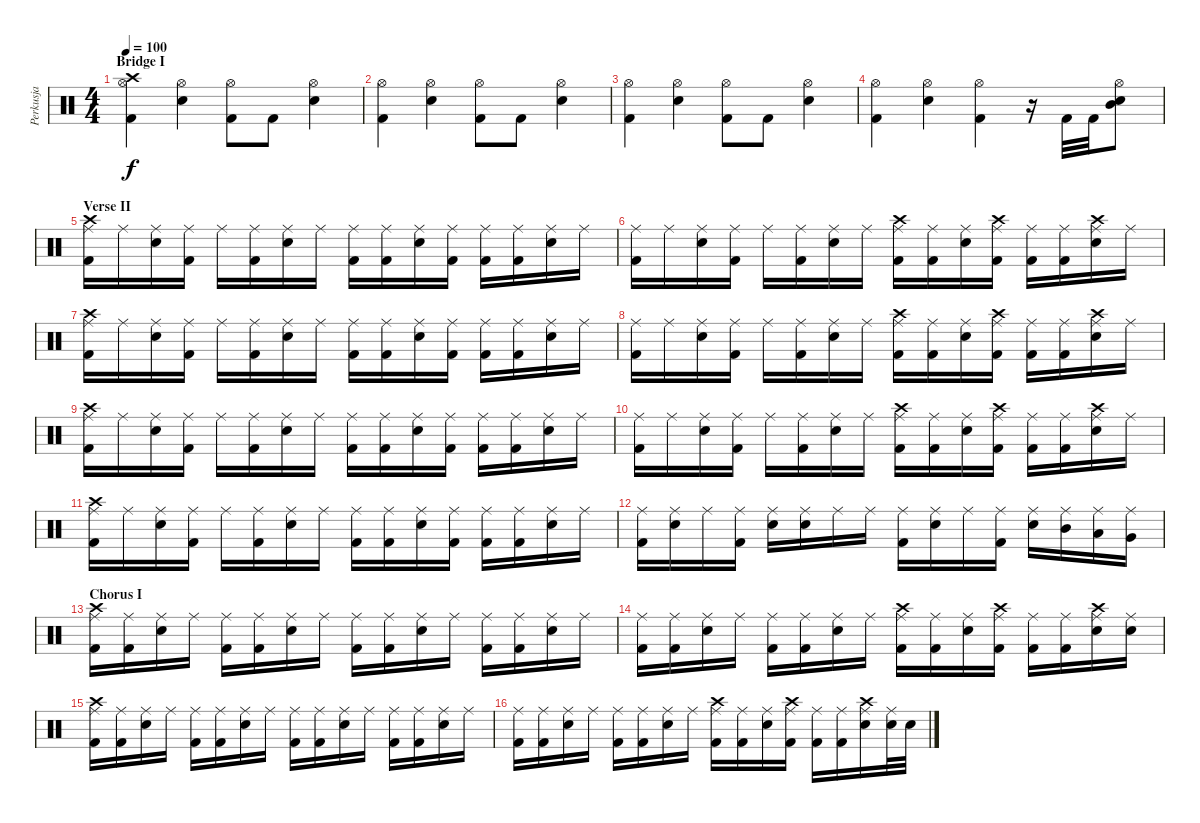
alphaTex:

\track ("Perkusja" "Perkusja") {instrument percussion}
\staff {score}
\articulation defaults
\ts (4 4)
\section ("" "Bridge I")
\tempo 100
\clef neutral
\ks c
("Kick (hit) 2" "Hi-Hat (open)" "Crash high (hit)").4{dy f} ("Snare (hit) 2" "Hi-Hat (open)").4 ("Kick (hit) 2" "Hi-Hat (open)").8 "Kick (hit) 2".8 ("Snare (hit) 2" "Hi-Hat (open)").4 |
("Kick (hit) 2" "Hi-Hat (open)").4 ("Snare (hit) 2" "Hi-Hat (open)").4 ("Kick (hit) 2" "Hi-Hat (open)").8 "Kick (hit) 2".8 ("Snare (hit) 2" "Hi-Hat (open)").4 |
("Kick (hit) 2" "Hi-Hat (open)").4 ("Snare (hit) 2" "Hi-Hat (open)").4 ("Kick (hit) 2" "Hi-Hat (open)").8 "Kick (hit) 2".8 ("Snare (hit) 2" "Hi-Hat (open)").4 |
("Kick (hit) 2" "Hi-Hat (open)").4 ("Snare (hit) 2" "Hi-Hat (open)").4 ("Kick (hit) 2" "Hi-Hat (open)").4 r.16 "Kick (hit) 2".32 "Kick (hit) 2".32 ("Snare (hit) 2" "Hi-Hat (open)" "Mid Tom (hit)").8 |
\section ("" "Verse II")
("Kick (hit) 2" "Ride (middle)" "Crash high (hit)").16 "Ride (middle)".16 ("Snare (hit) 2" "Ride (middle)").16 ("Kick (hit) 2" "Ride (middle)").16 "Ride (middle)".16 ("Kick (hit) 2" "Ride (middle)").16 ("Snare (hit) 2" "Ride (middle)").16 "Ride (middle)".16 ("Kick (hit) 2" "Ride (middle)").16 ("Kick (hit) 2" "Ride (middle)").16 ("Snare (hit) 2" "Ride (middle)").16 ("Kick (hit) 2" "Ride (middle)").16 ("Kick (hit) 2" "Ride (middle)").16 ("Kick (hit) 2" "Ride (middle)").16 ("Snare (hit) 2" "Ride (middle)").16 "Ride (middle)".16 |
("Kick (hit) 2" "Ride (middle)").16 "Ride (middle)".16 ("Snare (hit) 2" "Ride (middle)").16 ("Kick (hit) 2" "Ride (middle)").16 "Ride (middle)".16 ("Kick (hit) 2" "Ride (middle)").16 ("Snare (hit) 2" "Ride (middle)").16 "Ride (middle)".16 ("Kick (hit) 2" "Ride (middle)" "Crash high (hit)").16 ("Kick (hit) 2" "Ride (middle)").16 ("Snare (hit) 2" "Ride (middle)").16 ("Kick (hit) 2" "Ride (middle)" "Crash high (hit)").16 ("Kick (hit) 2" "Ride (middle)").16 ("Kick (hit) 2" "Ride (middle)").16 ("Snare (hit) 2" "Ride (middle)" "Crash high (hit)").16 "Ride (middle)".16 |
("Kick (hit) 2" "Ride (middle)" "Crash high (hit)").16 "Ride (middle)".16 ("Snare (hit) 2" "Ride (middle)").16 ("Kick (hit) 2" "Ride (middle)").16 "Ride (middle)".16 ("Kick (hit) 2" "Ride (middle)").16 ("Snare (hit) 2" "Ride (middle)").16 "Ride (middle)".16 ("Kick (hit) 2" "Ride (middle)").16 ("Kick (hit) 2" "Ride (middle)").16 ("Snare (hit) 2" "Ride (middle)").16 ("Kick (hit) 2" "Ride (middle)").16 ("Kick (hit) 2" "Ride (middle)").16 ("Kick (hit) 2" "Ride (middle)").16 ("Snare (hit) 2" "Ride (middle)").16 "Ride (middle)".16 |
("Kick (hit) 2" "Ride (middle)").16 "Ride (middle)".16 ("Snare (hit) 2" "Ride (middle)").16 ("Kick (hit) 2" "Ride (middle)").16 "Ride (middle)".16 ("Kick (hit) 2" "Ride (middle)").16 ("Snare (hit) 2" "Ride (middle)").16 "Ride (middle)".16 ("Kick (hit) 2" "Ride (middle)" "Crash high (hit)").16 ("Kick (hit) 2" "Ride (middle)").16 ("Snare (hit) 2" "Ride (middle)").16 ("Kick (hit) 2" "Ride (middle)" "Crash high (hit)").16 ("Kick (hit) 2" "Ride (middle)").16 ("Kick (hit) 2" "Ride (middle)").16 ("Snare (hit) 2" "Ride (middle)" "Crash high (hit)").16 "Ride (middle)".16 |
("Kick (hit) 2" "Ride (middle)" "Crash high (hit)").16 "Ride (middle)".16 ("Snare (hit) 2" "Ride (middle)").16 ("Kick (hit) 2" "Ride (middle)").16 "Ride (middle)".16 ("Kick (hit) 2" "Ride (middle)").16 ("Snare (hit) 2" "Ride (middle)").16 "Ride (middle)".16 ("Kick (hit) 2" "Ride (middle)").16 ("Kick (hit) 2" "Ride (middle)").16 ("Snare (hit) 2" "Ride (middle)").16 ("Kick (hit) 2" "Ride (middle)").16 ("Kick (hit) 2" "Ride (middle)").16 ("Kick (hit) 2" "Ride (middle)").16 ("Snare (hit) 2" "Ride (middle)").16 "Ride (middle)".16 |
("Kick (hit) 2" "Ride (middle)").16 "Ride (middle)".16 ("Snare (hit) 2" "Ride (middle)").16 ("Kick (hit) 2" "Ride (middle)").16 "Ride (middle)".16 ("Kick (hit) 2" "Ride (middle)").16 ("Snare (hit) 2" "Ride (middle)").16 "Ride (middle)".16 ("Kick (hit) 2" "Ride (middle)" "Crash high (hit)").16 ("Kick (hit) 2" "Ride (middle)").16 ("Snare (hit) 2" "Ride (middle)").16 ("Kick (hit) 2" "Ride (middle)" "Crash high (hit)").16 ("Kick (hit) 2" "Ride (middle)").16 ("Kick (hit) 2" "Ride (middle)").16 ("Snare (hit) 2" "Ride (middle)" "Crash high (hit)").16 "Ride (middle)".16 |
("Kick (hit) 2" "Ride (middle)" "Crash high (hit)").16 "Ride (middle)".16 ("Snare (hit) 2" "Ride (middle)").16 ("Kick (hit) 2" "Ride (middle)").16 "Ride (middle)".16 ("Kick (hit) 2" "Ride (middle)").16 ("Snare (hit) 2" "Ride (middle)").16 "Ride (middle)".16 ("Kick (hit) 2" "Ride (middle)").16 ("Kick (hit) 2" "Ride (middle)").16 ("Snare (hit) 2" "Ride (middle)").16 ("Kick (hit) 2" "Ride (middle)").16 ("Kick (hit) 2" "Ride (middle)").16 ("Kick (hit) 2" "Ride (middle)").16 ("Snare (hit) 2" "Ride (middle)").16 "Ride (middle)".16 |
("Kick (hit) 2" "Ride (middle)").16 ("Snare (hit) 2" "Ride (middle)").16 "Ride (middle)".16 ("Kick (hit) 2" "Ride (middle)").16 ("Snare (hit) 2" "Ride (middle)").16 ("Snare (hit) 2" "Ride (middle)").16 "Ride (middle)".16 "Ride (middle)".16 ("Kick (hit) 2" "Ride (middle)").16 ("Snare (hit) 2" "Ride (middle)").16 "Ride (middle)".16 ("Kick (hit) 2" "Ride (middle)").16 ("Snare (hit) 2" "Ride (middle)").16 ("Mid Tom (hit)" "Ride (middle)").16 ("Low Tom (hit)" "Ride (middle)").16 ("Very Low Tom (hit)" "Ride (middle)").16 |
\section ("" "Chorus I")
("Kick (hit) 2" "Ride (middle)" "Crash high (hit)").16 ("Kick (hit) 2" "Ride (middle)").16 ("Snare (hit) 2" "Ride (middle)").16 "Ride (middle)".16 ("Kick (hit) 2" "Ride (middle)").16 ("Kick (hit) 2" "Ride (middle)").16 ("Snare (hit) 2" "Ride (middle)").16 "Ride (middle)".16 ("Kick (hit) 2" "Ride (middle)").16 ("Kick (hit) 2" "Ride (middle)").16 ("Snare (hit) 2" "Ride (middle)").16 "Ride (middle)".16 ("Kick (hit) 2" "Ride (middle)").16 ("Kick (hit) 2" "Ride (middle)").16 ("Snare (hit) 2" "Ride (middle)").16 "Ride (middle)".16 |
("Kick (hit) 2" "Ride (middle)").16 ("Kick (hit) 2" "Ride (middle)").16 ("Snare (hit) 2" "Ride (middle)").16 "Ride (middle)".16 ("Kick (hit) 2" "Ride (middle)").16 ("Kick (hit) 2" "Ride (middle)").16 ("Snare (hit) 2" "Ride (middle)").16 "Ride (middle)".16 ("Kick (hit) 2" "Ride (middle)" "Crash high (hit)").16 ("Kick (hit) 2" "Ride (middle)").16 ("Snare (hit) 2" "Ride (middle)").16 ("Kick (hit) 2" "Ride (middle)" "Crash high (hit)").16 ("Kick (hit) 2" "Ride (middle)").16 ("Kick (hit) 2" "Ride (middle)").16 ("Snare (hit) 2" "Ride (middle)" "Crash high (hit)").16 ("Snare (hit) 2" "Ride (middle)").16 |
("Kick (hit) 2" "Ride (middle)" "Crash high (hit)").16 ("Kick (hit) 2" "Ride (middle)").16 ("Snare (hit) 2" "Ride (middle)").16 "Ride (middle)".16 ("Kick (hit) 2" "Ride (middle)").16 ("Kick (hit) 2" "Ride (middle)").16 ("Snare (hit) 2" "Ride (middle)").16 "Ride (middle)".16 ("Kick (hit) 2" "Ride (middle)").16 ("Kick (hit) 2" "Ride (middle)").16 ("Snare (hit) 2" "Ride (middle)").16 "Ride (middle)".16 ("Kick (hit) 2" "Ride (middle)").16 ("Kick (hit) 2" "Ride (middle)").16 ("Snare (hit) 2" "Ride (middle)").16 "Ride (middle)".16 |
("Kick (hit) 2" "Ride (middle)").16 ("Kick (hit) 2" "Ride (middle)").16 ("Snare (hit) 2" "Ride (middle)").16 "Ride (middle)".16 ("Kick (hit) 2" "Ride (middle)").16 ("Kick (hit) 2" "Ride (middle)").16 ("Snare (hit) 2" "Ride (middle)").16 "Ride (middle)".16 ("Kick (hit) 2" "Ride (middle)" "Crash high (hit)").16 ("Kick (hit) 2" "Ride (middle)").16 ("Snare (hit) 2" "Ride (middle)").16 ("Kick (hit) 2" "Ride (middle)" "Crash high (hit)").16 ("Kick (hit) 2" "Ride (middle)").16 ("Kick (hit) 2" "Ride (middle)").16 ("Snare (hit) 2" "Ride (middle)" "Crash high (hit)").16 ("Snare (hit) 2" "Ride (middle)").32 "Snare (hit) 2".32
